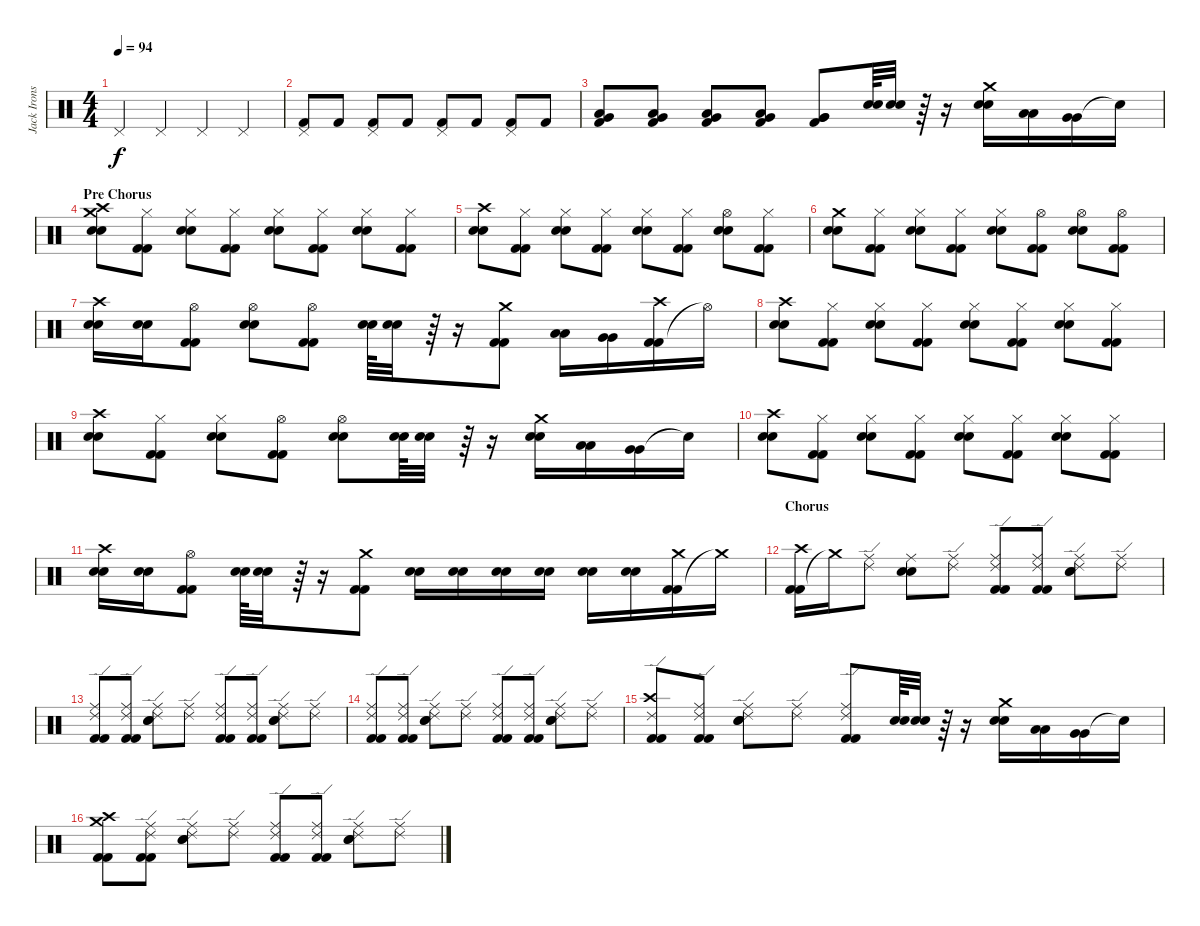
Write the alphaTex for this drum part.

\track ("Jack Irons" "Jack Irons") {instrument percussion}
\staff {score}
\articulation defaults
\ts (4 4)
\tempo 94
\clef neutral
\ks c "Pedal Hi-Hat (hit)".4{dy f} "Pedal Hi-Hat (hit)".4 "Pedal Hi-Hat (hit)".4 "Pedal Hi-Hat (hit)".4
|
("Kick (hit) 2" "Pedal Hi-Hat (hit)").8 "Kick (hit) 2".8 ("Kick (hit) 2" "Pedal Hi-Hat (hit)").8 "Kick (hit) 2".8 ("Kick (hit) 2" "Pedal Hi-Hat (hit)").8 "Kick (hit) 2".8 ("Kick (hit) 2" "Pedal Hi-Hat (hit)").8 "Kick (hit) 2".8 |
("Very Low Tom (hit)" "Low Tom (hit)" "Kick (hit) 2").8 ("Very Low Tom (hit)" "Low Tom (hit)" "Kick (hit) 2").8 ("Very Low Tom (hit)" "Low Tom (hit)" "Kick (hit) 2").8 ("Very Low Tom (hit)" "Low Tom (hit)" "Kick (hit) 2").8 ("Very Low Tom (hit)" "Very Low Tom (hit)" "Kick (hit) 2").8 ("Electric Snare (hit)" "Electric Snare (hit)").64 ("Electric Snare (hit)" "Electric Snare (hit)").32 r.64 r.16 ("Crash medium (hit)" "Electric Snare (hit)" "Electric Snare (hit)").16 ("Low Tom (hit)" "Low Tom (hit)").16 ("Very Low Tom (hit)" "Very Low Tom (hit)").16 "Snare (hit)"{t}.16 |
\section ("" "Pre Chorus")
("Electric Snare (hit)" "Electric Snare (hit)" "Crash high (hit)" "Crash medium (hit)").8 ("Kick (hit) 2" "Kick (hit) 2" "Hi-Hat (closed)").8 ("Electric Snare (hit)" "Electric Snare (hit)" "Hi-Hat (closed)").8 ("Kick (hit) 2" "Kick (hit) 2" "Hi-Hat (closed)").8 ("Electric Snare (hit)" "Electric Snare (hit)" "Hi-Hat (closed)").8 ("Kick (hit) 2" "Kick (hit) 2" "Hi-Hat (closed)").8 ("Electric Snare (hit)" "Electric Snare (hit)" "Hi-Hat (closed)").8 ("Kick (hit) 2" "Kick (hit) 2" "Hi-Hat (closed)").8 |
("Electric Snare (hit)" "Electric Snare (hit)" "Crash high (hit)").8 ("Kick (hit) 2" "Kick (hit) 2" "Hi-Hat (closed)").8 ("Electric Snare (hit)" "Electric Snare (hit)" "Hi-Hat (closed)").8 ("Kick (hit) 2" "Kick (hit) 2" "Hi-Hat (closed)").8 ("Electric Snare (hit)" "Electric Snare (hit)" "Hi-Hat (closed)").8 ("Kick (hit) 2" "Kick (hit) 2" "Hi-Hat (closed)").8 ("Electric Snare (hit)" "Electric Snare (hit)" "Hi-Hat (open)").8 ("Kick (hit) 2" "Kick (hit) 2" "Hi-Hat (closed)").8 |
("Electric Snare (hit)" "Electric Snare (hit)" "Crash medium (hit)").8 ("Kick (hit) 2" "Kick (hit) 2" "Hi-Hat (closed)").8 ("Electric Snare (hit)" "Electric Snare (hit)" "Hi-Hat (closed)").8 ("Kick (hit) 2" "Kick (hit) 2" "Hi-Hat (closed)").8 ("Electric Snare (hit)" "Electric Snare (hit)" "Hi-Hat (closed)").8 ("Kick (hit) 2" "Kick (hit) 2" "Hi-Hat (open)").8 ("Electric Snare (hit)" "Electric Snare (hit)" "Hi-Hat (open)").8 ("Kick (hit) 2" "Kick (hit) 2" "Hi-Hat (open)").8 |
("Electric Snare (hit)" "Electric Snare (hit)" "Crash high (hit)").16 ("Electric Snare (hit)" "Electric Snare (hit)").16 ("Kick (hit) 2" "Kick (hit) 2" "Hi-Hat (open)").8 ("Electric Snare (hit)" "Electric Snare (hit)" "Hi-Hat (open)").8 ("Kick (hit) 2" "Kick (hit) 2" "Hi-Hat (open)").8 ("Electric Snare (hit)" "Electric Snare (hit)").64 ("Electric Snare (hit)" "Electric Snare (hit)").32 r.64 r.16 ("Crash medium (hit)" "Kick (hit) 2" "Kick (hit) 2").8 ("Low Tom (hit)" "Low Tom (hit)").16 ("Very Low Tom (hit)" "Very Low Tom (hit)").16 ("Kick (hit) 2" "Kick (hit) 2" "Crash high (hit)").16 "Hi-Hat (open)"{t}.16 |
("Electric Snare (hit)" "Electric Snare (hit)" "Crash high (hit)").8 ("Kick (hit) 2" "Kick (hit) 2" "Hi-Hat (closed)").8 ("Electric Snare (hit)" "Electric Snare (hit)" "Hi-Hat (closed)").8 ("Kick (hit) 2" "Kick (hit) 2" "Hi-Hat (closed)").8 ("Electric Snare (hit)" "Electric Snare (hit)" "Hi-Hat (closed)").8 ("Kick (hit) 2" "Kick (hit) 2" "Hi-Hat (closed)").8 ("Electric Snare (hit)" "Electric Snare (hit)" "Hi-Hat (closed)").8 ("Kick (hit) 2" "Kick (hit) 2" "Hi-Hat (closed)").8 |
("Electric Snare (hit)" "Electric Snare (hit)" "Crash high (hit)").8 ("Kick (hit) 2" "Kick (hit) 2" "Hi-Hat (closed)").8 ("Electric Snare (hit)" "Electric Snare (hit)" "Hi-Hat (closed)").8 ("Kick (hit) 2" "Kick (hit) 2" "Hi-Hat (open)").8 ("Electric Snare (hit)" "Electric Snare (hit)" "Hi-Hat (open)").8 ("Electric Snare (hit)" "Electric Snare (hit)").64 ("Electric Snare (hit)" "Electric Snare (hit)").32 r.64 r.16 ("Crash medium (hit)" "Electric Snare (hit)" "Electric Snare (hit)").16 ("Low Tom (hit)" "Low Tom (hit)").16 ("Very Low Tom (hit)" "Very Low Tom (hit)").16 "Snare (hit)"{t}.16 |
("Electric Snare (hit)" "Electric Snare (hit)" "Crash high (hit)").8 ("Kick (hit) 2" "Kick (hit) 2" "Hi-Hat (closed)").8 ("Electric Snare (hit)" "Electric Snare (hit)" "Hi-Hat (closed)").8 ("Kick (hit) 2" "Kick (hit) 2" "Hi-Hat (closed)").8 ("Electric Snare (hit)" "Electric Snare (hit)" "Hi-Hat (closed)").8 ("Kick (hit) 2" "Kick (hit) 2" "Hi-Hat (closed)").8 ("Electric Snare (hit)" "Electric Snare (hit)" "Hi-Hat (closed)").8 ("Kick (hit) 2" "Kick (hit) 2" "Hi-Hat (closed)").8 |
("Electric Snare (hit)" "Electric Snare (hit)" "Crash high (hit)").16 ("Electric Snare (hit)" "Electric Snare (hit)").16 ("Kick (hit) 2" "Kick (hit) 2" "Hi-Hat (open)").8 ("Electric Snare (hit)" "Electric Snare (hit)").64 ("Electric Snare (hit)" "Electric Snare (hit)").32 r.64 r.16 ("Crash medium (hit)" "Kick (hit) 2" "Kick (hit) 2").8 ("Electric Snare (hit)" "Electric Snare (hit)").16 ("Electric Snare (hit)" "Electric Snare (hit)").16 ("Electric Snare (hit)" "Electric Snare (hit)").16 ("Electric Snare (hit)" "Electric Snare (hit)").16 ("Electric Snare (hit)" "Electric Snare (hit)").16 ("Electric Snare (hit)" "Electric Snare (hit)").16 ("Kick (hit) 2" "Kick (hit) 2" "Crash medium (hit)").16 "Crash medium (hit)"{t}.16 |
\section ("" "Chorus")
("Kick (hit) 2" "Kick (hit) 2" "Crash high (hit)").16 "Crash medium (hit)"{t}.16 ("Ride (middle)" "Ride (edge) 2").8 ("Electric Snare (hit)" "Electric Snare (hit)" "Ride (middle)").8 ("Ride (middle)" "Ride (edge) 2").8 ("Kick (hit) 2" "Kick (hit) 2" "Ride (middle)" "Ride (edge) 2").8 ("Kick (hit) 2" "Kick (hit) 2" "Ride (middle)" "Ride (edge) 2").8 ("Electric Snare (hit)" "Electric Snare (hit)" "Ride (middle)" "Ride (edge) 2").8 ("Ride (middle)" "Ride (edge) 2").8 |
("Kick (hit) 2" "Kick (hit) 2" "Ride (middle)" "Ride (edge) 2").8 ("Kick (hit) 2" "Kick (hit) 2" "Ride (middle)" "Ride (edge) 2").8 ("Electric Snare (hit)" "Electric Snare (hit)" "Ride (middle)" "Ride (edge) 2").8 ("Ride (middle)" "Ride (edge) 2").8 ("Kick (hit) 2" "Kick (hit) 2" "Ride (middle)" "Ride (edge) 2").8 ("Kick (hit) 2" "Kick (hit) 2" "Ride (middle)" "Ride (edge) 2").8 ("Electric Snare (hit)" "Electric Snare (hit)" "Ride (middle)" "Ride (edge) 2").8 ("Ride (middle)" "Ride (edge) 2").8 |
("Kick (hit) 2" "Kick (hit) 2" "Ride (middle)" "Ride (edge) 2").8 ("Kick (hit) 2" "Kick (hit) 2" "Ride (middle)" "Ride (edge) 2").8 ("Electric Snare (hit)" "Electric Snare (hit)" "Ride (middle)" "Ride (edge) 2").8 ("Ride (middle)" "Ride (edge) 2").8 ("Kick (hit) 2" "Kick (hit) 2" "Ride (middle)" "Ride (edge) 2").8 ("Kick (hit) 2" "Kick (hit) 2" "Ride (middle)" "Ride (edge) 2").8 ("Electric Snare (hit)" "Electric Snare (hit)" "Ride (middle)" "Ride (edge) 2").8 ("Ride (middle)" "Ride (edge) 2").8 |
("Kick (hit) 2" "Kick (hit) 2" "Crash high (hit)" "Ride (edge) 2").8 ("Kick (hit) 2" "Kick (hit) 2" "Ride (middle)" "Ride (edge) 2").8 ("Electric Snare (hit)" "Electric Snare (hit)" "Ride (middle)" "Ride (edge) 2").8 ("Ride (middle)" "Ride (edge) 2").8 ("Kick (hit) 2" "Kick (hit) 2" "Ride (middle)" "Ride (edge) 2").8 ("Electric Snare (hit)" "Electric Snare (hit)").64 ("Electric Snare (hit)" "Electric Snare (hit)").32 r.64 r.16 ("Electric Snare (hit)" "Electric Snare (hit)" "Crash medium (hit)").16 ("Low Tom (hit)" "Low Tom (hit)").16 ("Very Low Tom (hit)" "Very Low Tom (hit)").16 "Snare (hit)"{t}.16 |
("Kick (hit) 2" "Kick (hit) 2" "Crash high (hit)" "Crash medium (hit)").8 ("Kick (hit) 2" "Kick (hit) 2" "Ride (middle)" "Ride (edge) 2").8 ("Electric Snare (hit)" "Electric Snare (hit)" "Ride (middle)" "Ride (edge) 2").8 ("Ride (middle)" "Ride (edge) 2").8 ("Kick (hit) 2" "Kick (hit) 2" "Ride (middle)" "Ride (edge) 2").8 ("Kick (hit) 2" "Kick (hit) 2" "Ride (middle)" "Ride (edge) 2").8 ("Electric Snare (hit)" "Electric Snare (hit)" "Ride (middle)" "Ride (edge) 2").8 ("Ride (middle)" "Ride (edge) 2").8
